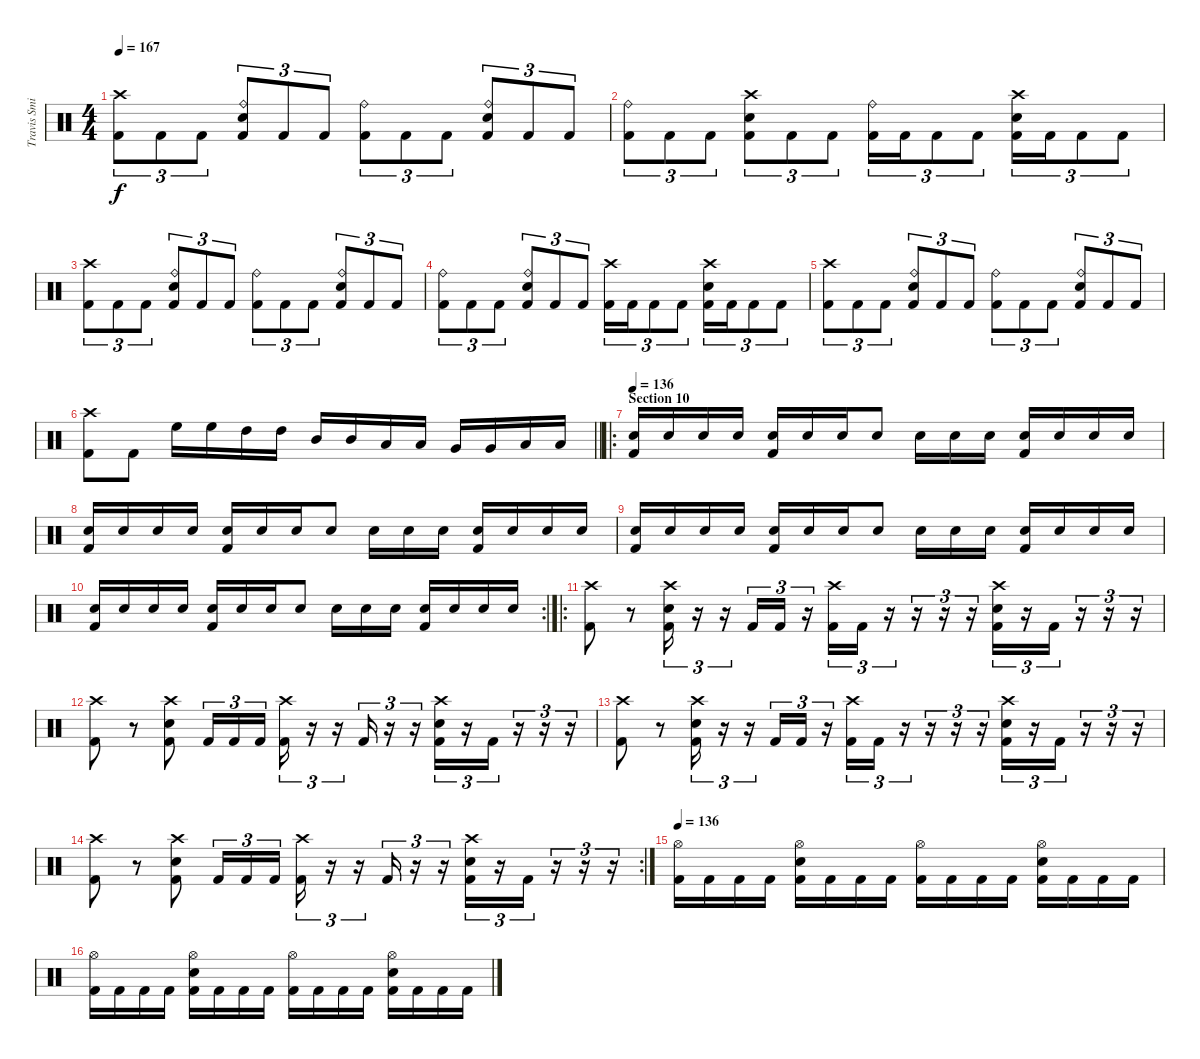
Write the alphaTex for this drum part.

\track ("Travis Smith" "Travis Smi") {instrument percussion}
\staff {score}
\articulation defaults
\ts (4 4)
\tempo 167
\clef neutral
\ks c
("Crash high (hit)" "Kick (hit) 2").8{tu (3 2) dy f} "Kick (hit) 2".8{tu (3 2)} "Kick (hit) 2".8{tu (3 2)} ("Ride (bell)" "Snare (hit) 2" "Kick (hit) 2").8{tu (3 2)} "Kick (hit) 2".8{tu (3 2)} "Kick (hit) 2".8{tu (3 2)} ("Ride (bell)" "Kick (hit) 2").8{tu (3 2)} "Kick (hit) 2".8{tu (3 2)} "Kick (hit) 2".8{tu (3 2)} ("Ride (bell)" "Snare (hit) 2" "Kick (hit) 2").8{tu (3 2)} "Kick (hit) 2".8{tu (3 2)} "Kick (hit) 2".8{tu (3 2)} |
("Ride (bell)" "Kick (hit) 2").8{tu (3 2)} "Kick (hit) 2".8{tu (3 2)} "Kick (hit) 2".8{tu (3 2)} ("Crash high (hit)" "Snare (hit) 2" "Kick (hit) 2").8{tu (3 2)} "Kick (hit) 2".8{tu (3 2)} "Kick (hit) 2".8{tu (3 2)} ("Ride (bell)" "Kick (hit) 2").16{tu (3 2)} "Kick (hit) 2".16{tu (3 2)} "Kick (hit) 2".8{tu (3 2)} "Kick (hit) 2".8{tu (3 2)} ("Crash high (hit)" "Snare (hit) 2" "Kick (hit) 2").16{tu (3 2)} "Kick (hit) 2".16{tu (3 2)} "Kick (hit) 2".8{tu (3 2)} "Kick (hit) 2".8{tu (3 2)} |
("Crash high (hit)" "Kick (hit) 2").8{tu (3 2)} "Kick (hit) 2".8{tu (3 2)} "Kick (hit) 2".8{tu (3 2)} ("Ride (bell)" "Snare (hit) 2" "Kick (hit) 2").8{tu (3 2)} "Kick (hit) 2".8{tu (3 2)} "Kick (hit) 2".8{tu (3 2)} ("Ride (bell)" "Kick (hit) 2").8{tu (3 2)} "Kick (hit) 2".8{tu (3 2)} "Kick (hit) 2".8{tu (3 2)} ("Ride (bell)" "Snare (hit) 2" "Kick (hit) 2").8{tu (3 2)} "Kick (hit) 2".8{tu (3 2)} "Kick (hit) 2".8{tu (3 2)} |
("Ride (bell)" "Kick (hit) 2").8{tu (3 2)} "Kick (hit) 2".8{tu (3 2)} "Kick (hit) 2".8{tu (3 2)} ("Ride (bell)" "Snare (hit) 2" "Kick (hit) 2").8{tu (3 2)} "Kick (hit) 2".8{tu (3 2)} "Kick (hit) 2".8{tu (3 2)} ("Crash high (hit)" "Kick (hit) 2").16{tu (3 2)} "Kick (hit) 2".16{tu (3 2)} "Kick (hit) 2".8{tu (3 2)} "Kick (hit) 2".8{tu (3 2)} ("Crash high (hit)" "Snare (hit) 2" "Kick (hit) 2").16{tu (3 2)} "Kick (hit) 2".16{tu (3 2)} "Kick (hit) 2".8{tu (3 2)} "Kick (hit) 2".8{tu (3 2)} |
("Crash high (hit)" "Kick (hit) 2").8{tu (3 2)} "Kick (hit) 2".8{tu (3 2)} "Kick (hit) 2".8{tu (3 2)} ("Ride (bell)" "Snare (hit) 2" "Kick (hit) 2").8{tu (3 2)} "Kick (hit) 2".8{tu (3 2)} "Kick (hit) 2".8{tu (3 2)} ("Ride (bell)" "Kick (hit) 2").8{tu (3 2)} "Kick (hit) 2".8{tu (3 2)} "Kick (hit) 2".8{tu (3 2)} ("Ride (bell)" "Snare (hit) 2" "Kick (hit) 2").8{tu (3 2)} "Kick (hit) 2".8{tu (3 2)} "Kick (hit) 2".8{tu (3 2)} |
\barLineRight lightlight
("Crash high (hit)" "Kick (hit) 2").8 "Kick (hit) 2".8 "High Floor Tom (hit)".16 "High Floor Tom (hit)".16 "High Tom (hit)".16 "High Tom (hit)".16 "Mid Tom (hit)".16 "Mid Tom (hit)".16 "Low Tom (hit)".16 "Low Tom (hit)".16 "Very Low Tom (hit)".16 "Very Low Tom (hit)".16 "Low Floor Tom (hit)".16 "Low Floor Tom (hit)".16 |
\ro
\section ("" "Section 10")
\tempo 136
("Kick (hit) 2" "Snare (hit) 2").16 "Snare (hit) 2".16 "Snare (hit) 2".16 "Snare (hit) 2".16 ("Kick (hit) 2" "Snare (hit) 2").16 "Snare (hit) 2".16 "Snare (hit) 2".16 "Snare (hit) 2".8 "Snare (hit) 2".16 "Snare (hit) 2".16 "Snare (hit) 2".16 ("Kick (hit) 2" "Snare (hit) 2").16 "Snare (hit) 2".16 "Snare (hit) 2".16 "Snare (hit) 2".16 |
("Kick (hit) 2" "Snare (hit) 2").16 "Snare (hit) 2".16 "Snare (hit) 2".16 "Snare (hit) 2".16 ("Kick (hit) 2" "Snare (hit) 2").16 "Snare (hit) 2".16 "Snare (hit) 2".16 "Snare (hit) 2".8 "Snare (hit) 2".16 "Snare (hit) 2".16 "Snare (hit) 2".16 ("Kick (hit) 2" "Snare (hit) 2").16 "Snare (hit) 2".16 "Snare (hit) 2".16 "Snare (hit) 2".16 |
("Kick (hit) 2" "Snare (hit) 2").16 "Snare (hit) 2".16 "Snare (hit) 2".16 "Snare (hit) 2".16 ("Kick (hit) 2" "Snare (hit) 2").16 "Snare (hit) 2".16 "Snare (hit) 2".16 "Snare (hit) 2".8 "Snare (hit) 2".16 "Snare (hit) 2".16 "Snare (hit) 2".16 ("Kick (hit) 2" "Snare (hit) 2").16 "Snare (hit) 2".16 "Snare (hit) 2".16 "Snare (hit) 2".16 |
\rc 2
("Kick (hit) 2" "Snare (hit) 2").16 "Snare (hit) 2".16 "Snare (hit) 2".16 "Snare (hit) 2".16 ("Kick (hit) 2" "Snare (hit) 2").16 "Snare (hit) 2".16 "Snare (hit) 2".16 "Snare (hit) 2".8 "Snare (hit) 2".16 "Snare (hit) 2".16 "Snare (hit) 2".16 ("Kick (hit) 2" "Snare (hit) 2").16 "Snare (hit) 2".16 "Snare (hit) 2".16 "Snare (hit) 2".16 |
\ro
("Crash high (hit)" "Kick (hit) 2").8 r.8 ("Crash high (hit)" "Snare (hit) 2" "Kick (hit) 2").16{tu (3 2)} r.16{tu (3 2)} r.16{tu (3 2)} "Kick (hit) 2".16{tu (3 2)} "Kick (hit) 2".16{tu (3 2)} r.16{tu (3 2)} ("Crash high (hit)" "Kick (hit) 2").16{tu (3 2)} "Kick (hit) 2".16{tu (3 2)} r.16{tu (3 2)} r.16{tu (3 2)} r.16{tu (3 2)} r.16{tu (3 2)} ("Crash high (hit)" "Snare (hit) 2" "Kick (hit) 2").16{tu (3 2)} r.16{tu (3 2)} "Kick (hit) 2".16{tu (3 2)} r.16{tu (3 2)} r.16{tu (3 2)} r.16{tu (3 2)} |
("Crash high (hit)" "Kick (hit) 2").8 r.8 ("Crash high (hit)" "Snare (hit) 2" "Kick (hit) 2").8 "Kick (hit) 2".16{tu (3 2)} "Kick (hit) 2".16{tu (3 2)} "Kick (hit) 2".16{tu (3 2)} ("Crash high (hit)" "Kick (hit) 2").16{tu (3 2)} r.16{tu (3 2)} r.16{tu (3 2)} "Kick (hit) 2".16{tu (3 2)} r.16{tu (3 2)} r.16{tu (3 2)} ("Crash high (hit)" "Snare (hit) 2" "Kick (hit) 2").16{tu (3 2)} r.16{tu (3 2)} "Kick (hit) 2".16{tu (3 2)} r.16{tu (3 2)} r.16{tu (3 2)} r.16{tu (3 2)} |
("Crash high (hit)" "Kick (hit) 2").8 r.8 ("Crash high (hit)" "Snare (hit) 2" "Kick (hit) 2").16{tu (3 2)} r.16{tu (3 2)} r.16{tu (3 2)} "Kick (hit) 2".16{tu (3 2)} "Kick (hit) 2".16{tu (3 2)} r.16{tu (3 2)} ("Crash high (hit)" "Kick (hit) 2").16{tu (3 2)} "Kick (hit) 2".16{tu (3 2)} r.16{tu (3 2)} r.16{tu (3 2)} r.16{tu (3 2)} r.16{tu (3 2)} ("Crash high (hit)" "Snare (hit) 2" "Kick (hit) 2").16{tu (3 2)} r.16{tu (3 2)} "Kick (hit) 2".16{tu (3 2)} r.16{tu (3 2)} r.16{tu (3 2)} r.16{tu (3 2)} |
\rc 2
("Crash high (hit)" "Kick (hit) 2").8 r.8 ("Crash high (hit)" "Snare (hit) 2" "Kick (hit) 2").8 "Kick (hit) 2".16{tu (3 2)} "Kick (hit) 2".16{tu (3 2)} "Kick (hit) 2".16{tu (3 2)} ("Crash high (hit)" "Kick (hit) 2").16{tu (3 2)} r.16{tu (3 2)} r.16{tu (3 2)} "Kick (hit) 2".16{tu (3 2)} r.16{tu (3 2)} r.16{tu (3 2)} ("Crash high (hit)" "Snare (hit) 2" "Kick (hit) 2").16{tu (3 2)} r.16{tu (3 2)} "Kick (hit) 2".16{tu (3 2)} r.16{tu (3 2)} r.16{tu (3 2)} r.16{tu (3 2)} |
\tempo 136
("Hi-Hat (open)" "Kick (hit) 2").16 "Kick (hit) 2".16 "Kick (hit) 2".16 "Kick (hit) 2".16 ("Hi-Hat (open)" "Snare (hit) 2" "Kick (hit) 2").16 "Kick (hit) 2".16 "Kick (hit) 2".16 "Kick (hit) 2".16 ("Hi-Hat (open)" "Kick (hit) 2").16 "Kick (hit) 2".16 "Kick (hit) 2".16 "Kick (hit) 2".16 ("Hi-Hat (open)" "Snare (hit) 2" "Kick (hit) 2").16 "Kick (hit) 2".16 "Kick (hit) 2".16 "Kick (hit) 2".16 |
("Hi-Hat (open)" "Kick (hit) 2").16 "Kick (hit) 2".16 "Kick (hit) 2".16 "Kick (hit) 2".16 ("Hi-Hat (open)" "Snare (hit) 2" "Kick (hit) 2").16 "Kick (hit) 2".16 "Kick (hit) 2".16 "Kick (hit) 2".16 ("Hi-Hat (open)" "Kick (hit) 2").16 "Kick (hit) 2".16 "Kick (hit) 2".16 "Kick (hit) 2".16 ("Hi-Hat (open)" "Snare (hit) 2" "Kick (hit) 2").16 "Kick (hit) 2".16 "Kick (hit) 2".16 "Kick (hit) 2".16
